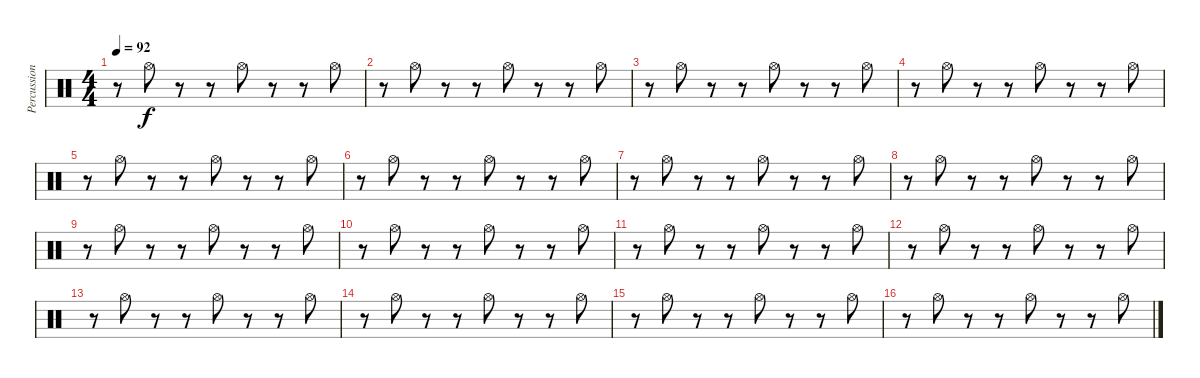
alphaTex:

\track ("Percussions" "Percussion") {instrument percussion}
\staff {score}
\articulation defaults
\ts (4 4)
\tempo 92
\clef neutral
\ks c
r.8{dy f} "Hi-Hat (open)".8 r.8 r.8 "Hi-Hat (open)".8 r.8 r.8 "Hi-Hat (open)".8 |
r.8 "Hi-Hat (open)".8 r.8 r.8 "Hi-Hat (open)".8 r.8 r.8 "Hi-Hat (open)".8 |
r.8 "Hi-Hat (open)".8 r.8 r.8 "Hi-Hat (open)".8 r.8 r.8 "Hi-Hat (open)".8 |
r.8 "Hi-Hat (open)".8 r.8 r.8 "Hi-Hat (open)".8 r.8 r.8 "Hi-Hat (open)".8 |
r.8 "Hi-Hat (open)".8 r.8 r.8 "Hi-Hat (open)".8 r.8 r.8 "Hi-Hat (open)".8 |
r.8 "Hi-Hat (open)".8 r.8 r.8 "Hi-Hat (open)".8 r.8 r.8 "Hi-Hat (open)".8 |
r.8 "Hi-Hat (open)".8 r.8 r.8 "Hi-Hat (open)".8 r.8 r.8 "Hi-Hat (open)".8 |
r.8 "Hi-Hat (open)".8 r.8 r.8 "Hi-Hat (open)".8 r.8 r.8 "Hi-Hat (open)".8 |
r.8 "Hi-Hat (open)".8 r.8 r.8 "Hi-Hat (open)".8 r.8 r.8 "Hi-Hat (open)".8 |
r.8 "Hi-Hat (open)".8 r.8 r.8 "Hi-Hat (open)".8 r.8 r.8 "Hi-Hat (open)".8 |
r.8 "Hi-Hat (open)".8 r.8 r.8 "Hi-Hat (open)".8 r.8 r.8 "Hi-Hat (open)".8 |
r.8 "Hi-Hat (open)".8 r.8 r.8 "Hi-Hat (open)".8 r.8 r.8 "Hi-Hat (open)".8 |
r.8 "Hi-Hat (open)".8 r.8 r.8 "Hi-Hat (open)".8 r.8 r.8 "Hi-Hat (open)".8 |
r.8 "Hi-Hat (open)".8 r.8 r.8 "Hi-Hat (open)".8 r.8 r.8 "Hi-Hat (open)".8 |
r.8 "Hi-Hat (open)".8 r.8 r.8 "Hi-Hat (open)".8 r.8 r.8 "Hi-Hat (open)".8 |
r.8 "Hi-Hat (open)".8 r.8 r.8 "Hi-Hat (open)".8 r.8 r.8 "Hi-Hat (open)".8
